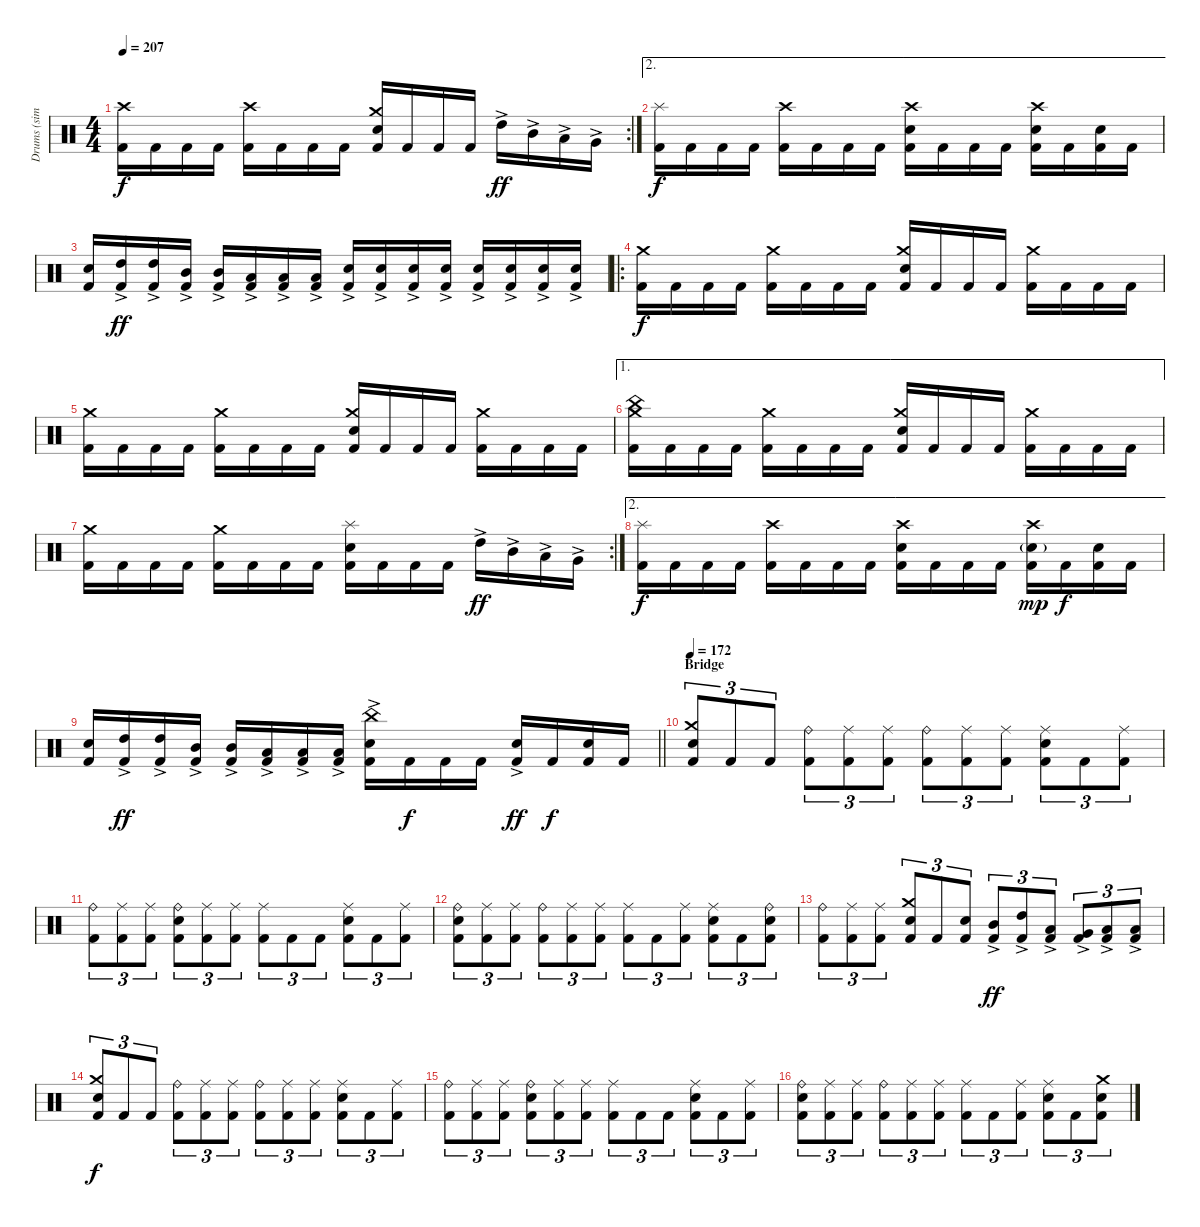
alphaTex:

\track ("Drums (simplified)" "Drums (sim") {instrument percussion}
\staff {score}
\articulation defaults
\rc 2
\ts (4 4)
\tempo 207
\clef neutral
\ks c
("Crash high (hit)" "Kick (hit) 2").16{dy f} "Kick (hit) 2".16 "Kick (hit) 2".16 "Kick (hit) 2".16 ("Crash high (hit)" "Kick (hit) 2").16 "Kick (hit) 2".16 "Kick (hit) 2".16 "Kick (hit) 2".16 ("Crash medium (hit)" "Electric Snare (hit)" "Kick (hit) 2").16 "Kick (hit) 2".16 "Kick (hit) 2".16 "Kick (hit) 2".16 "High Tom (hit)"{ac}.16{dy ff} "Mid Tom (hit)"{ac}.16 "Low Tom (hit)"{ac}.16 "Very Low Tom (hit)"{ac}.16 |
\ae 2
("Splash (hit)" "Kick (hit) 2").16{dy f} "Kick (hit) 2".16 "Kick (hit) 2".16 "Kick (hit) 2".16 ("Crash high (hit)" "Kick (hit) 2").16 "Kick (hit) 2".16 "Kick (hit) 2".16 "Kick (hit) 2".16 ("Crash high (hit)" "Electric Snare (hit)" "Kick (hit) 2").16 "Kick (hit) 2".16 "Kick (hit) 2".16 "Kick (hit) 2".16 ("Crash high (hit)" "Electric Snare (hit)" "Kick (hit) 2").16 "Kick (hit) 2".16 ("Electric Snare (hit)" "Kick (hit) 2").16 "Kick (hit) 2".16 |
("Electric Snare (hit)" "Kick (hit) 2").16 ("High Tom (hit)"{ac} "Kick (hit) 2").16{dy ff} ("High Tom (hit)"{ac} "Kick (hit) 2").16 ("Mid Tom (hit)"{ac} "Kick (hit) 2").16 ("Mid Tom (hit)"{ac} "Kick (hit) 2").16 ("Low Tom (hit)"{ac} "Kick (hit) 2").16 ("Low Tom (hit)"{ac} "Kick (hit) 2").16 ("Low Tom (hit)"{ac} "Kick (hit) 2").16 ("Electric Snare (hit)"{ac} "Kick (hit) 2").16 ("Electric Snare (hit)"{ac} "Kick (hit) 2").16 ("Electric Snare (hit)"{ac} "Kick (hit) 2").16 ("Electric Snare (hit)"{ac} "Kick (hit) 2").16 ("Electric Snare (hit)"{ac} "Kick (hit) 2").16 ("Electric Snare (hit)"{ac} "Kick (hit) 2").16 ("Electric Snare (hit)"{ac} "Kick (hit) 2").16 ("Electric Snare (hit)"{ac} "Kick (hit) 2").16 |
\ro
("Crash medium (hit)" "Kick (hit) 2").16{dy f} "Kick (hit) 2".16 "Kick (hit) 2".16 "Kick (hit) 2".16 ("Crash medium (hit)" "Kick (hit) 2").16 "Kick (hit) 2".16 "Kick (hit) 2".16 "Kick (hit) 2".16 ("Crash medium (hit)" "Electric Snare (hit)" "Kick (hit) 2").16 "Kick (hit) 2".16 "Kick (hit) 2".16 "Kick (hit) 2".16 ("Crash medium (hit)" "Kick (hit) 2").16 "Kick (hit) 2".16 "Kick (hit) 2".16 "Kick (hit) 2".16 |
("Crash medium (hit)" "Kick (hit) 2").16 "Kick (hit) 2".16 "Kick (hit) 2".16 "Kick (hit) 2".16 ("Crash medium (hit)" "Kick (hit) 2").16 "Kick (hit) 2".16 "Kick (hit) 2".16 "Kick (hit) 2".16 ("Crash medium (hit)" "Electric Snare (hit)" "Kick (hit) 2").16 "Kick (hit) 2".16 "Kick (hit) 2".16 "Kick (hit) 2".16 ("Crash medium (hit)" "Kick (hit) 2").16 "Kick (hit) 2".16 "Kick (hit) 2".16 "Kick (hit) 2".16 |
\ae 1
("China (hit)" "Crash medium (hit)" "Kick (hit) 2").16 "Kick (hit) 2".16 "Kick (hit) 2".16 "Kick (hit) 2".16 ("Crash medium (hit)" "Kick (hit) 2").16 "Kick (hit) 2".16 "Kick (hit) 2".16 "Kick (hit) 2".16 ("Crash medium (hit)" "Electric Snare (hit)" "Kick (hit) 2").16 "Kick (hit) 2".16 "Kick (hit) 2".16 "Kick (hit) 2".16 ("Crash medium (hit)" "Kick (hit) 2").16 "Kick (hit) 2".16 "Kick (hit) 2".16 "Kick (hit) 2".16 |
\rc 2
("Crash medium (hit)" "Kick (hit) 2").16 "Kick (hit) 2".16 "Kick (hit) 2".16 "Kick (hit) 2".16 ("Crash medium (hit)" "Kick (hit) 2").16 "Kick (hit) 2".16 "Kick (hit) 2".16 "Kick (hit) 2".16 ("Splash (hit)" "Electric Snare (hit)" "Kick (hit) 2").16 "Kick (hit) 2".16 "Kick (hit) 2".16 "Kick (hit) 2".16 "High Tom (hit)"{ac}.16{dy ff} "Mid Tom (hit)"{ac}.16 "Low Tom (hit)"{ac}.16 "Very Low Tom (hit)"{ac}.16 |
\ae 2
("Splash (hit)" "Kick (hit) 2").16{dy f} "Kick (hit) 2".16 "Kick (hit) 2".16 "Kick (hit) 2".16 ("Crash high (hit)" "Kick (hit) 2").16 "Kick (hit) 2".16 "Kick (hit) 2".16 "Kick (hit) 2".16 ("Crash high (hit)" "Electric Snare (hit)" "Kick (hit) 2").16 "Kick (hit) 2".16 "Kick (hit) 2".16 "Kick (hit) 2".16 ("Crash high (hit)" "Electric Snare (hit)"{g} "Kick (hit) 2").16{dy mp} "Kick (hit) 2".16{dy f} ("Electric Snare (hit)" "Kick (hit) 2").16 "Kick (hit) 2".16 |
\barLineRight lightlight
("Electric Snare (hit)" "Kick (hit) 2").16 ("High Tom (hit)"{ac} "Kick (hit) 2").16{dy ff} ("High Tom (hit)"{ac} "Kick (hit) 2").16 ("Mid Tom (hit)"{ac} "Kick (hit) 2").16 ("Mid Tom (hit)"{ac} "Kick (hit) 2").16 ("Low Tom (hit)"{ac} "Kick (hit) 2").16 ("Low Tom (hit)"{ac} "Kick (hit) 2").16 ("Low Tom (hit)"{ac} "Kick (hit) 2").16 ("China (hit)" "Electric Snare (hit)"{ac} "Kick (hit) 2").16 "Kick (hit) 2".16{dy f} "Kick (hit) 2".16 "Kick (hit) 2".16 ("Electric Snare (hit)"{ac} "Kick (hit) 2").16{dy ff} "Kick (hit) 2".16{dy f} ("Electric Snare (hit)" "Kick (hit) 2").16 "Kick (hit) 2".16 |
\section ("" "Bridge")
\tempo 170
\tempo 172
("Crash medium (hit)" "Electric Snare (hit)" "Kick (hit) 2").8{tu (3 2)} "Kick (hit) 2".8{tu (3 2)} "Kick (hit) 2".8{tu (3 2)} ("Ride (bell)" "Kick (hit) 2").8{tu (3 2)} ("Ride (middle)" "Kick (hit) 2").8{tu (3 2)} ("Ride (middle)" "Kick (hit) 2").8{tu (3 2)} ("Ride (bell)" "Kick (hit) 2").8{tu (3 2)} ("Ride (middle)" "Kick (hit) 2").8{tu (3 2)} ("Ride (middle)" "Kick (hit) 2").8{tu (3 2)} ("Ride (middle)" "Electric Snare (hit)" "Kick (hit) 2").8{tu (3 2)} "Kick (hit) 2".8{tu (3 2)} ("Ride (middle)" "Kick (hit) 2").8{tu (3 2)} |
("Ride (bell)" "Kick (hit) 2").8{tu (3 2)} ("Ride (middle)" "Kick (hit) 2").8{tu (3 2)} ("Ride (middle)" "Kick (hit) 2").8{tu (3 2)} ("Ride (bell)" "Electric Snare (hit)" "Kick (hit) 2").8{tu (3 2)} ("Ride (middle)" "Kick (hit) 2").8{tu (3 2)} ("Ride (middle)" "Kick (hit) 2").8{tu (3 2)} ("Ride (middle)" "Kick (hit) 2").8{tu (3 2)} "Kick (hit) 2".8{tu (3 2)} "Kick (hit) 2".8{tu (3 2)} ("Ride (middle)" "Electric Snare (hit)" "Kick (hit) 2").8{tu (3 2)} "Kick (hit) 2".8{tu (3 2)} ("Ride (middle)" "Kick (hit) 2").8{tu (3 2)} |
("Ride (bell)" "Electric Snare (hit)" "Kick (hit) 2").8{tu (3 2)} ("Ride (middle)" "Kick (hit) 2").8{tu (3 2)} ("Ride (middle)" "Kick (hit) 2").8{tu (3 2)} ("Ride (bell)" "Kick (hit) 2").8{tu (3 2)} ("Ride (middle)" "Kick (hit) 2").8{tu (3 2)} ("Ride (middle)" "Kick (hit) 2").8{tu (3 2)} ("Ride (middle)" "Kick (hit) 2").8{tu (3 2)} "Kick (hit) 2".8{tu (3 2)} ("Ride (middle)" "Kick (hit) 2").8{tu (3 2)} ("Ride (middle)" "Electric Snare (hit)" "Kick (hit) 2").8{tu (3 2)} "Kick (hit) 2".8{tu (3 2)} ("Ride (bell)" "Electric Snare (hit)" "Kick (hit) 2").8{tu (3 2)} |
("Ride (bell)" "Kick (hit) 2").8{tu (3 2)} ("Ride (middle)" "Kick (hit) 2").8{tu (3 2)} ("Ride (middle)" "Kick (hit) 2").8{tu (3 2)} ("Crash medium (hit)" "Electric Snare (hit)" "Kick (hit) 2").8{tu (3 2)} "Kick (hit) 2".8{tu (3 2)} ("Electric Snare (hit)" "Kick (hit) 2").8{tu (3 2)} ("Mid Tom (hit)"{ac} "Kick (hit) 2").8{tu (3 2) dy ff} ("High Tom (hit)"{ac} "Kick (hit) 2").8{tu (3 2)} ("Low Tom (hit)"{ac} "Kick (hit) 2").8{tu (3 2)} ("Very Low Tom (hit)"{ac} "Kick (hit) 2").8{tu (3 2)} ("Low Tom (hit)"{ac} "Kick (hit) 2").8{tu (3 2)} ("Low Floor Tom (hit)"{ac} "Kick (hit) 2").8{tu (3 2)} |
("Crash medium (hit)" "Electric Snare (hit)" "Kick (hit) 2").8{tu (3 2) dy f} "Kick (hit) 2".8{tu (3 2)} "Kick (hit) 2".8{tu (3 2)} ("Ride (bell)" "Kick (hit) 2").8{tu (3 2)} ("Ride (middle)" "Kick (hit) 2").8{tu (3 2)} ("Ride (middle)" "Kick (hit) 2").8{tu (3 2)} ("Ride (bell)" "Kick (hit) 2").8{tu (3 2)} ("Ride (middle)" "Kick (hit) 2").8{tu (3 2)} ("Ride (middle)" "Kick (hit) 2").8{tu (3 2)} ("Ride (middle)" "Electric Snare (hit)" "Kick (hit) 2").8{tu (3 2)} "Kick (hit) 2".8{tu (3 2)} ("Ride (middle)" "Kick (hit) 2").8{tu (3 2)} |
("Ride (bell)" "Kick (hit) 2").8{tu (3 2)} ("Ride (middle)" "Kick (hit) 2").8{tu (3 2)} ("Ride (middle)" "Kick (hit) 2").8{tu (3 2)} ("Ride (bell)" "Electric Snare (hit)" "Kick (hit) 2").8{tu (3 2)} ("Ride (middle)" "Kick (hit) 2").8{tu (3 2)} ("Ride (middle)" "Kick (hit) 2").8{tu (3 2)} ("Ride (middle)" "Kick (hit) 2").8{tu (3 2)} "Kick (hit) 2".8{tu (3 2)} "Kick (hit) 2".8{tu (3 2)} ("Ride (middle)" "Electric Snare (hit)" "Kick (hit) 2").8{tu (3 2)} "Kick (hit) 2".8{tu (3 2)} ("Ride (middle)" "Kick (hit) 2").8{tu (3 2)} |
("Ride (bell)" "Electric Snare (hit)" "Kick (hit) 2").8{tu (3 2)} ("Ride (middle)" "Kick (hit) 2").8{tu (3 2)} ("Ride (middle)" "Kick (hit) 2").8{tu (3 2)} ("Ride (bell)" "Kick (hit) 2").8{tu (3 2)} ("Ride (middle)" "Kick (hit) 2").8{tu (3 2)} ("Ride (middle)" "Kick (hit) 2").8{tu (3 2)} ("Ride (middle)" "Kick (hit) 2").8{tu (3 2)} "Kick (hit) 2".8{tu (3 2)} ("Ride (middle)" "Kick (hit) 2").8{tu (3 2)} ("Ride (middle)" "Electric Snare (hit)" "Kick (hit) 2").8{tu (3 2)} "Kick (hit) 2".8{tu (3 2)} ("Crash medium (hit)" "Electric Snare (hit)" "Kick (hit) 2").8{tu (3 2)}
